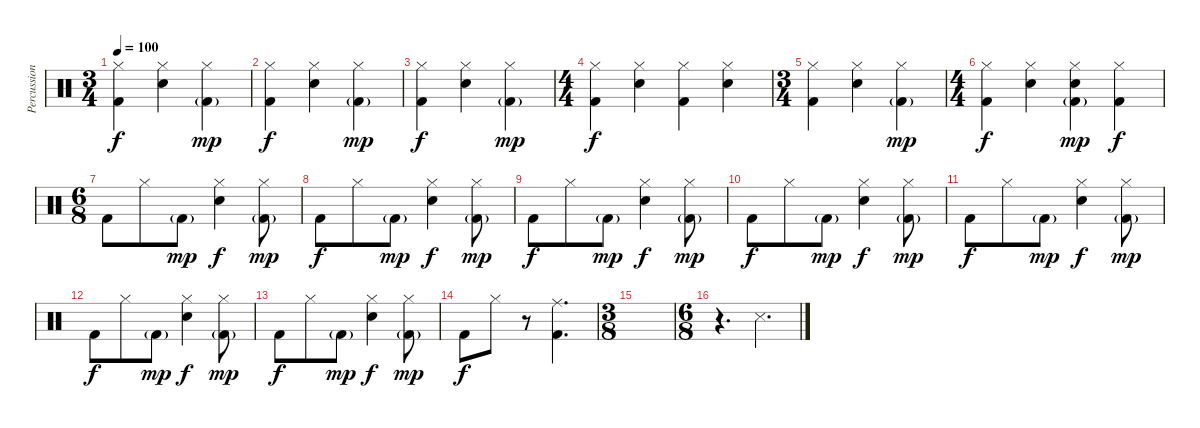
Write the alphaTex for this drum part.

\track ("Percussion" "Percussion") {instrument percussion}
\staff {score}
\articulation defaults
\ts (3 4)
\tempo 100
\clef neutral
\ks c
("Hi-Hat (closed)" "Kick (hit) 2").4{dy f} ("Hi-Hat (closed)" "Snare (hit) 2").4 ("Hi-Hat (closed)" "Kick (hit) 2"{g}).4{dy mp} |
("Hi-Hat (closed)" "Kick (hit) 2").4{dy f} ("Hi-Hat (closed)" "Snare (hit) 2").4 ("Hi-Hat (closed)" "Kick (hit) 2"{g}).4{dy mp} |
("Hi-Hat (closed)" "Kick (hit) 2").4{dy f} ("Hi-Hat (closed)" "Snare (hit) 2").4 ("Hi-Hat (closed)" "Kick (hit) 2"{g}).4{dy mp} |
\ts (4 4)
("Hi-Hat (closed)" "Kick (hit) 2").4{dy f} ("Hi-Hat (closed)" "Snare (hit) 2").4 ("Hi-Hat (closed)" "Kick (hit) 2").4 ("Hi-Hat (closed)" "Snare (hit) 2").4 |
\ts (3 4)
("Hi-Hat (closed)" "Kick (hit) 2").4 ("Hi-Hat (closed)" "Snare (hit) 2").4 ("Hi-Hat (closed)" "Kick (hit) 2"{g}).4{dy mp} |
\ts (4 4)
("Hi-Hat (closed)" "Kick (hit) 2").4{dy f} ("Hi-Hat (closed)" "Snare (hit) 2").4 ("Hi-Hat (closed)" "Snare (hit) 2" "Kick (hit) 2"{g}).4{dy mp} ("Hi-Hat (closed)" "Kick (hit) 2").4{dy f} |
\ts (6 8)
"Kick (hit) 2".8 "Hi-Hat (closed)".8 "Kick (hit) 2"{g}.8{dy mp} ("Hi-Hat (closed)" "Snare (hit) 2").4{dy f} ("Hi-Hat (closed)" "Kick (hit) 2"{g}).8{dy mp} |
"Kick (hit) 2".8{dy f} "Hi-Hat (closed)".8 "Kick (hit) 2"{g}.8{dy mp} ("Hi-Hat (closed)" "Snare (hit) 2").4{dy f} ("Hi-Hat (closed)" "Kick (hit) 2"{g}).8{dy mp} |
"Kick (hit) 2".8{dy f} "Hi-Hat (closed)".8 "Kick (hit) 2"{g}.8{dy mp} ("Hi-Hat (closed)" "Snare (hit) 2").4{dy f} ("Hi-Hat (closed)" "Kick (hit) 2"{g}).8{dy mp} |
"Kick (hit) 2".8{dy f} "Hi-Hat (closed)".8 "Kick (hit) 2"{g}.8{dy mp} ("Hi-Hat (closed)" "Snare (hit) 2").4{dy f} ("Hi-Hat (closed)" "Kick (hit) 2"{g}).8{dy mp} |
"Kick (hit) 2".8{dy f} "Hi-Hat (closed)".8 "Kick (hit) 2"{g}.8{dy mp} ("Hi-Hat (closed)" "Snare (hit) 2").4{dy f} ("Hi-Hat (closed)" "Kick (hit) 2"{g}).8{dy mp} |
"Kick (hit) 2".8{dy f} "Hi-Hat (closed)".8 "Kick (hit) 2"{g}.8{dy mp} ("Hi-Hat (closed)" "Snare (hit) 2").4{dy f} ("Hi-Hat (closed)" "Kick (hit) 2"{g}).8{dy mp} |
"Kick (hit) 2".8{dy f} "Hi-Hat (closed)".8 "Kick (hit) 2"{g}.8{dy mp} ("Hi-Hat (closed)" "Snare (hit) 2").4{dy f} ("Hi-Hat (closed)" "Kick (hit) 2"{g}).8{dy mp} |
"Kick (hit) 2".8{dy f} "Hi-Hat (closed)".8 r.8 ("Ride (middle)" "Kick (hit) 2").4{d} |
\ts (3 8)
|
\ts (6 8)
r.4{d} "Snare (side stick) 3".4{d}
